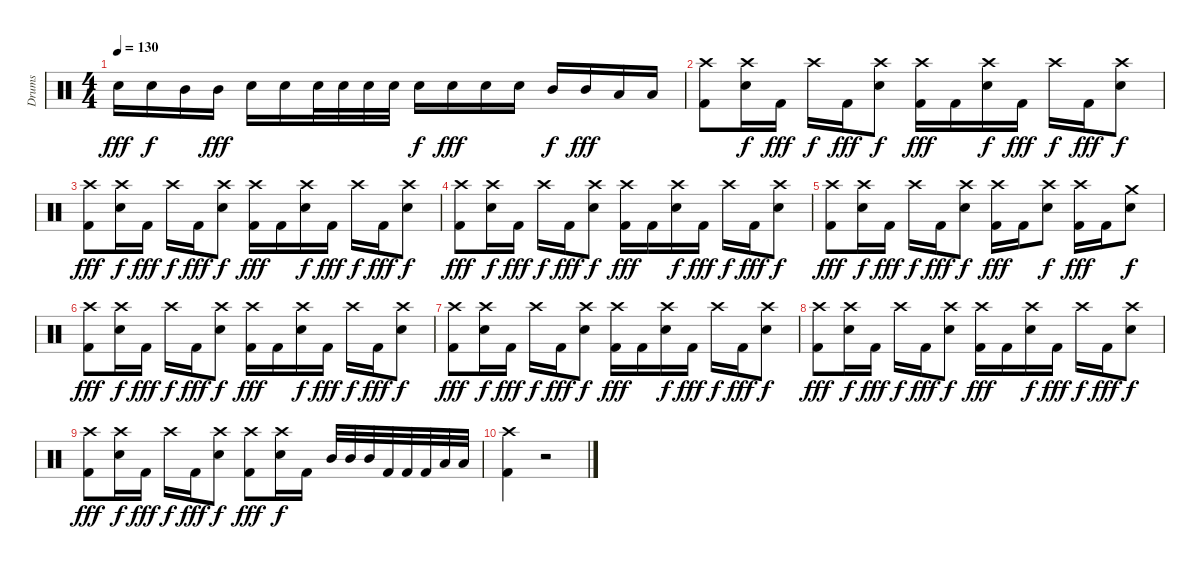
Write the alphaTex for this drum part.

\track ("Drums" "Drums") {instrument percussion}
\staff {score}
\articulation defaults
\ts (4 4)
\tempo 130
\clef neutral
\ks c "Electric Snare (hit)".16{dy fff} "Electric Snare (hit)".16{dy f} "Mid Tom (hit)".16 "Mid Tom (hit)".16{dy fff} "Electric Snare (hit)".16 "Electric Snare (hit)".16 "Electric Snare (hit)".32 "Electric Snare (hit)".32 "Electric Snare (hit)".32 "Electric Snare (hit)".32 "Electric Snare (hit)".16{dy f} "Electric Snare (hit)".16{dy fff} "Electric Snare (hit)".16 "Electric Snare (hit)".16 "Mid Tom (hit)".16{dy f} "Mid Tom (hit)".16{dy fff} "Low Tom (hit)".16 "Low Tom (hit)".16
|
("Crash high (hit)" "Kick (hit) 2").8 ("Crash high (hit)" "Electric Snare (hit)").16{dy f} "Kick (hit) 2".16{dy fff} "Crash high (hit)".16{dy f} "Kick (hit) 2".16{dy fff} ("Crash high (hit)" "Electric Snare (hit)").8{dy f} ("Crash high (hit)" "Kick (hit) 2").16{dy fff} "Kick (hit) 2".16 ("Crash high (hit)" "Electric Snare (hit)").16{dy f} "Kick (hit) 2".16{dy fff} "Crash high (hit)".16{dy f} "Kick (hit) 2".16{dy fff} ("Crash high (hit)" "Electric Snare (hit)").8{dy f} |
("Crash high (hit)" "Kick (hit) 2").8{dy fff} ("Crash high (hit)" "Electric Snare (hit)").16{dy f} "Kick (hit) 2".16{dy fff} "Crash high (hit)".16{dy f} "Kick (hit) 2".16{dy fff} ("Crash high (hit)" "Electric Snare (hit)").8{dy f} ("Crash high (hit)" "Kick (hit) 2").16{dy fff} "Kick (hit) 2".16 ("Crash high (hit)" "Electric Snare (hit)").16{dy f} "Kick (hit) 2".16{dy fff} "Crash high (hit)".16{dy f} "Kick (hit) 2".16{dy fff} ("Crash high (hit)" "Electric Snare (hit)").8{dy f} |
("Crash high (hit)" "Kick (hit) 2").8{dy fff} ("Crash high (hit)" "Electric Snare (hit)").16{dy f} "Kick (hit) 2".16{dy fff} "Crash high (hit)".16{dy f} "Kick (hit) 2".16{dy fff} ("Crash high (hit)" "Electric Snare (hit)").8{dy f} ("Crash high (hit)" "Kick (hit) 2").16{dy fff} "Kick (hit) 2".16 ("Crash high (hit)" "Electric Snare (hit)").16{dy f} "Kick (hit) 2".16{dy fff} "Crash high (hit)".16{dy f} "Kick (hit) 2".16{dy fff} ("Crash high (hit)" "Electric Snare (hit)").8{dy f} |
("Crash high (hit)" "Kick (hit) 2").8{dy fff} ("Crash high (hit)" "Electric Snare (hit)").16{dy f} "Kick (hit) 2".16{dy fff} "Crash high (hit)".16{dy f} "Kick (hit) 2".16{dy fff} ("Crash high (hit)" "Electric Snare (hit)").8{dy f} ("Crash high (hit)" "Kick (hit) 2").16{dy fff} "Kick (hit) 2".16 ("Crash high (hit)" "Electric Snare (hit)").8{dy f} ("Crash high (hit)" "Kick (hit) 2").16{dy fff} "Kick (hit) 2".16 ("Crash medium (hit)" "Electric Snare (hit)").8{dy f} |
("Crash high (hit)" "Kick (hit) 2").8{dy fff} ("Crash high (hit)" "Electric Snare (hit)").16{dy f} "Kick (hit) 2".16{dy fff} "Crash high (hit)".16{dy f} "Kick (hit) 2".16{dy fff} ("Crash high (hit)" "Electric Snare (hit)").8{dy f} ("Crash high (hit)" "Kick (hit) 2").16{dy fff} "Kick (hit) 2".16 ("Crash high (hit)" "Electric Snare (hit)").16{dy f} "Kick (hit) 2".16{dy fff} "Crash high (hit)".16{dy f} "Kick (hit) 2".16{dy fff} ("Crash high (hit)" "Electric Snare (hit)").8{dy f} |
("Crash high (hit)" "Kick (hit) 2").8{dy fff} ("Crash high (hit)" "Electric Snare (hit)").16{dy f} "Kick (hit) 2".16{dy fff} "Crash high (hit)".16{dy f} "Kick (hit) 2".16{dy fff} ("Crash high (hit)" "Electric Snare (hit)").8{dy f} ("Crash high (hit)" "Kick (hit) 2").16{dy fff} "Kick (hit) 2".16 ("Crash high (hit)" "Electric Snare (hit)").16{dy f} "Kick (hit) 2".16{dy fff} "Crash high (hit)".16{dy f} "Kick (hit) 2".16{dy fff} ("Crash high (hit)" "Electric Snare (hit)").8{dy f} |
("Crash high (hit)" "Kick (hit) 2").8{dy fff} ("Crash high (hit)" "Electric Snare (hit)").16{dy f} "Kick (hit) 2".16{dy fff} "Crash high (hit)".16{dy f} "Kick (hit) 2".16{dy fff} ("Crash high (hit)" "Electric Snare (hit)").8{dy f} ("Crash high (hit)" "Kick (hit) 2").16{dy fff} "Kick (hit) 2".16 ("Crash high (hit)" "Electric Snare (hit)").16{dy f} "Kick (hit) 2".16{dy fff} "Crash high (hit)".16{dy f} "Kick (hit) 2".16{dy fff} ("Crash high (hit)" "Electric Snare (hit)").8{dy f} |
("Crash high (hit)" "Kick (hit) 2").8{dy fff} ("Crash high (hit)" "Electric Snare (hit)").16{dy f} "Kick (hit) 2".16{dy fff} "Crash high (hit)".16{dy f} "Kick (hit) 2".16{dy fff} ("Crash high (hit)" "Electric Snare (hit)").8{dy f} ("Crash high (hit)" "Kick (hit) 2").8{dy fff} ("Crash high (hit)" "Electric Snare (hit)").16{dy f} "Kick (hit) 2".16 "Mid Tom (hit)".32 "Mid Tom (hit)".32 "Mid Tom (hit)".32 "Kick (hit) 2".32 "Kick (hit) 2".32 "Kick (hit) 2".32 "Low Tom (hit)".32 "Low Tom (hit)".32 |
("Crash high (hit)" "Kick (hit) 2").4 r.2
